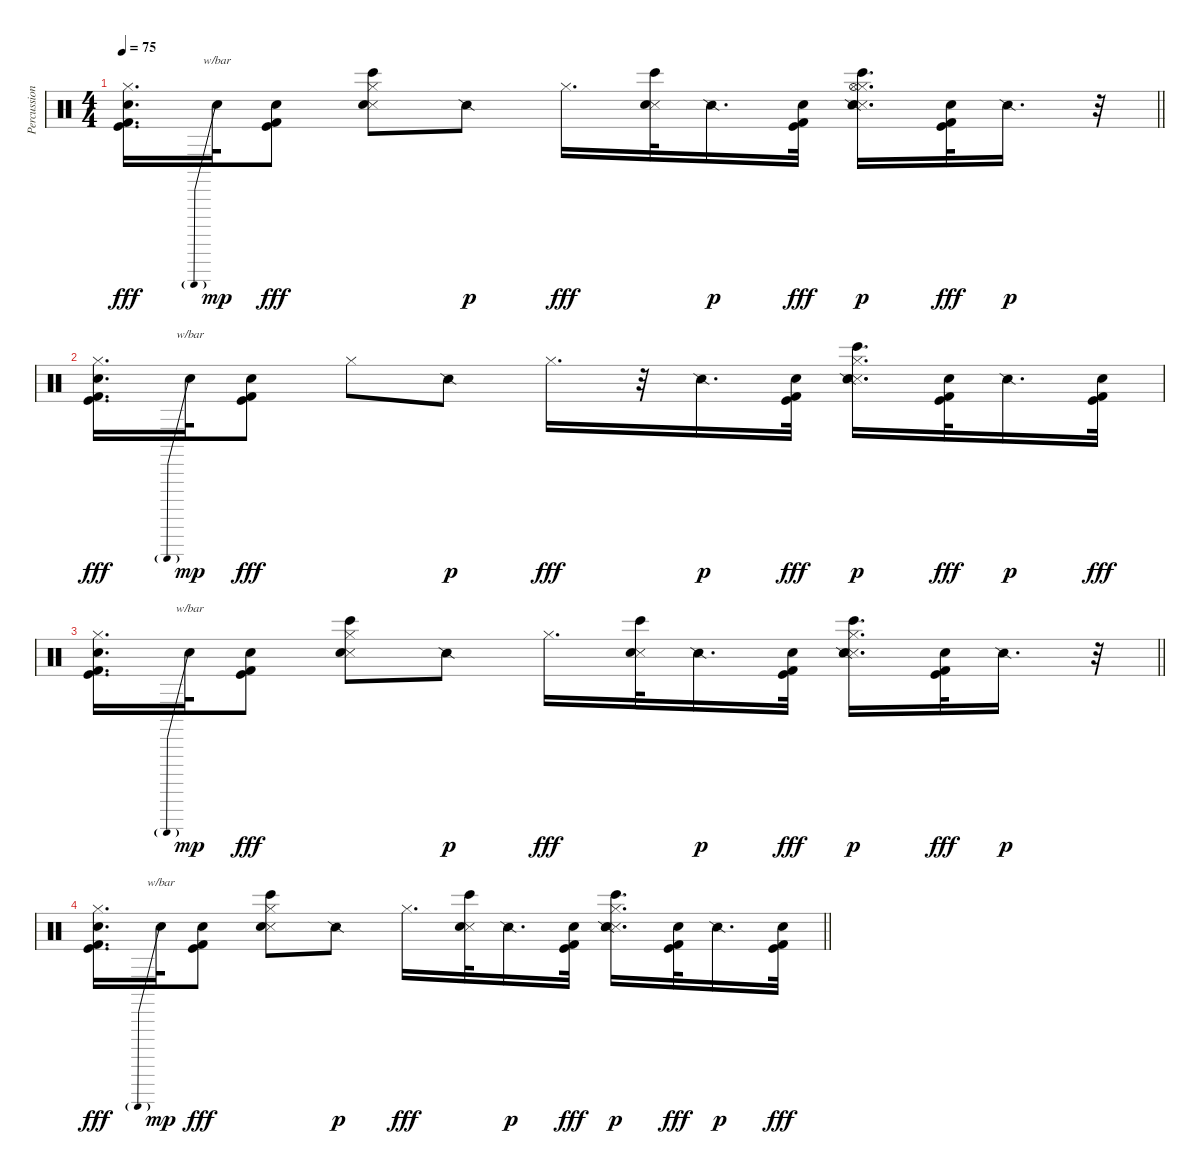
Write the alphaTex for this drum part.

\track ("Percussion" "Percussion") {instrument percussion}
\staff {score}
\articulation defaults
\ts (4 4)
\tempo 75
\clef neutral
\barLineRight lightlight
\ks c
("Hi-Hat (closed)" "Snare (hit) 2" "Kick (hit)" "Kick (hit) 2").16{d dy fff} "Hand Clap (hit)".32{tbe (predive default 0 24 60 24) dy mp} ("Snare (hit) 2" "Kick (hit)" "Kick (hit) 2").8{dy fff} ("Hi-Hat (closed)" "Snare (side stick) 3" "Snare (hit) 2" "Bongo High (hit)").8 "Snare (side stick) 2".8{dy p} "Hi-Hat (closed)".16{d dy fff} ("Snare (side stick) 3" "Snare (hit) 2" "Bongo High (hit)").32 "Snare (side stick) 2".16{d dy p} ("Snare (hit) 2" "Kick (hit)" "Kick (hit) 2").32{dy fff} ("Hi-Hat (closed)" "Snare (side stick) 3" "Snare (hit) 2" "Bongo High (hit)" "Snare (side stick) 2" "Hi-Hat (open)").16{d dy p} ("Snare (hit) 2" "Kick (hit)" "Kick (hit) 2").32{dy fff} "Snare (side stick) 2".16{d dy p} r.32 |
("Hi-Hat (closed)" "Snare (hit) 2" "Kick (hit)" "Kick (hit) 2").16{d dy fff} "Hand Clap (hit)".32{tbe (predive default 0 24 60 24) dy mp} ("Snare (hit) 2" "Kick (hit)" "Kick (hit) 2").8{dy fff} "Hi-Hat (closed)".8 "Snare (side stick) 2".8{dy p} "Hi-Hat (closed)".16{d dy fff} r.32 "Snare (side stick) 2".16{d dy p} ("Snare (hit) 2" "Kick (hit)" "Kick (hit) 2").32{dy fff} ("Hi-Hat (closed)" "Snare (side stick) 3" "Snare (hit) 2" "Bongo High (hit)" "Snare (side stick) 2").16{d dy p} ("Snare (hit) 2" "Kick (hit)" "Kick (hit) 2").32{dy fff} "Snare (side stick) 2".16{d dy p} ("Snare (hit) 2" "Kick (hit)" "Kick (hit) 2").32{dy fff} |
\barLineRight lightlight
("Hi-Hat (closed)" "Snare (hit) 2" "Kick (hit)" "Kick (hit) 2").16{d} "Hand Clap (hit)".32{tbe (predive default 0 24 60 24) dy mp} ("Snare (hit) 2" "Kick (hit)" "Kick (hit) 2").8{dy fff} ("Hi-Hat (closed)" "Snare (side stick) 3" "Snare (hit) 2" "Bongo High (hit)").8 "Snare (side stick) 2".8{dy p} "Hi-Hat (closed)".16{d dy fff} ("Snare (side stick) 3" "Snare (hit) 2" "Bongo High (hit)").32 "Snare (side stick) 2".16{d dy p} ("Snare (hit) 2" "Kick (hit)" "Kick (hit) 2").32{dy fff} ("Hi-Hat (closed)" "Snare (side stick) 3" "Snare (hit) 2" "Bongo High (hit)" "Snare (side stick) 2").16{d dy p} ("Snare (hit) 2" "Kick (hit)" "Kick (hit) 2").32{dy fff} "Snare (side stick) 2".16{d dy p} r.32 |
\barLineRight lightlight
("Hi-Hat (closed)" "Snare (hit) 2" "Kick (hit)" "Kick (hit) 2").16{d dy fff} "Hand Clap (hit)".32{tbe (predive default 0 24 60 24) dy mp} ("Snare (hit) 2" "Kick (hit)" "Kick (hit) 2").8{dy fff} ("Hi-Hat (closed)" "Snare (side stick) 3" "Snare (hit) 2" "Bongo High (hit)").8 "Snare (side stick) 2".8{dy p} "Hi-Hat (closed)".16{d dy fff} ("Snare (side stick) 3" "Snare (hit) 2" "Bongo High (hit)").32 "Snare (side stick) 2".16{d dy p} ("Snare (hit) 2" "Kick (hit)" "Kick (hit) 2").32{dy fff} ("Hi-Hat (closed)" "Snare (side stick) 3" "Snare (hit) 2" "Bongo High (hit)" "Snare (side stick) 2").16{d dy p} ("Snare (hit) 2" "Kick (hit)" "Kick (hit) 2").32{dy fff} "Snare (side stick) 2".16{d dy p} ("Snare (hit) 2" "Kick (hit)" "Kick (hit) 2").32{dy fff}
